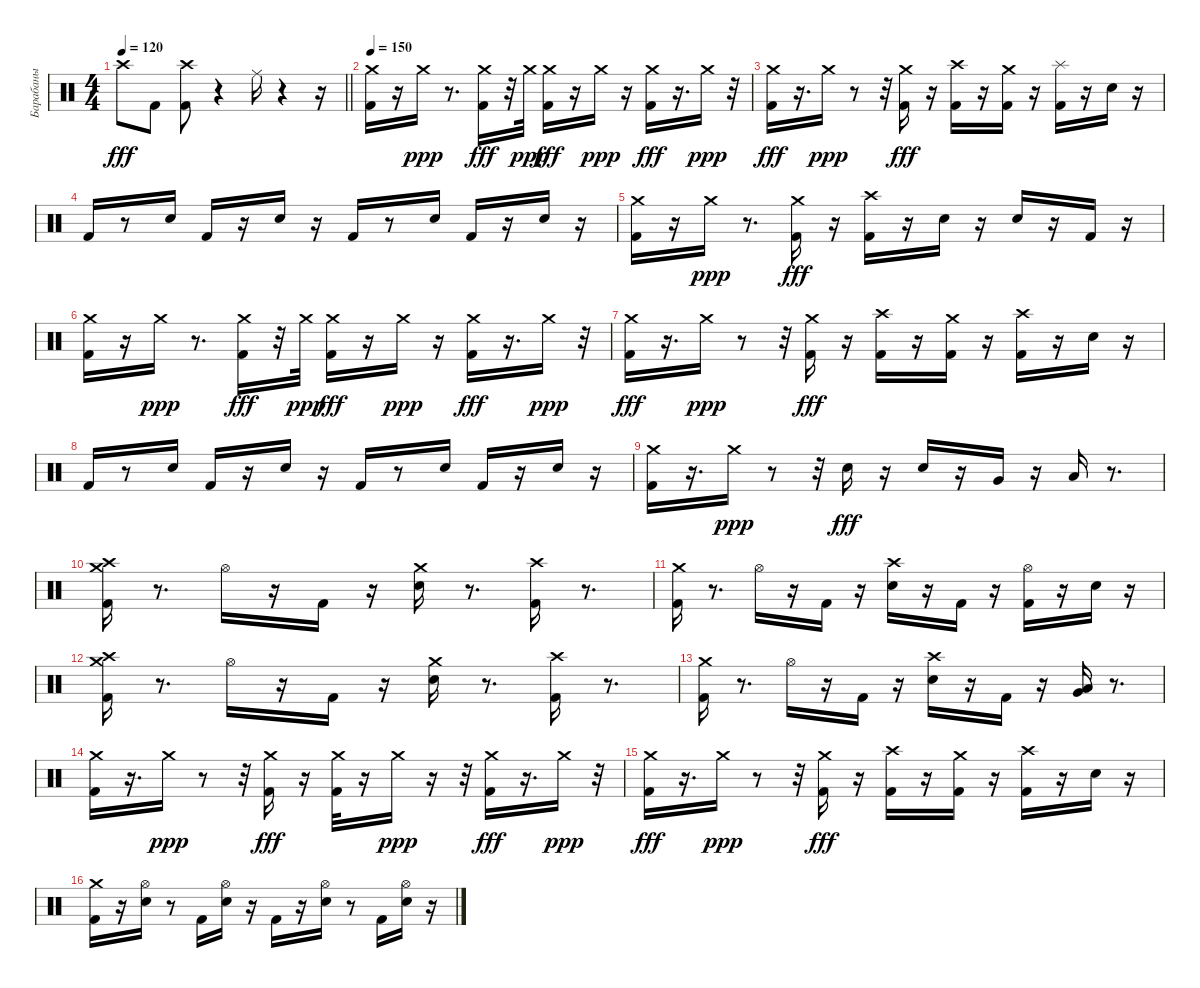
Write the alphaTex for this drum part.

\track ("Барабаны" "Барабаны") {instrument percussion}
\staff {score}
\articulation defaults
\ts (4 4)
\tempo 120
\clef neutral
\barLineRight lightlight
\ks c "Crash high (hit)".8{dy fff} "Kick (hit) 2".8
("Kick (hit) 2" "Crash high (hit)").8 r.4 "Ride (middle)".16 r.4 r.16 |
\section ("" " ")
\tempo 150
("Kick (hit) 2" "Crash medium (hit)").16 r.16 "Crash medium (hit)".16{dy ppp} r.8{d} ("Kick (hit) 2" "Crash medium (hit)").16{dy fff} r.32 "Crash medium (hit)".32{dy ppp} ("Kick (hit) 2" "Crash medium (hit)").16{dy fff} r.16 "Crash medium (hit)".16{dy ppp} r.16 ("Kick (hit) 2" "Crash medium (hit)").16{dy fff} r.16{d} "Crash medium (hit)".16{dy ppp} r.32 |
("Kick (hit) 2" "Crash medium (hit)").16{dy fff} r.16{d} "Crash medium (hit)".16{dy ppp} r.8 r.32 ("Kick (hit) 2" "Crash medium (hit)").16{dy fff} r.16 ("Kick (hit) 2" "Crash high (hit)").16 r.16 ("Kick (hit) 2" "Crash medium (hit)").16 r.16 ("Kick (hit) 2" "Splash (hit)").16 r.16 "Snare (hit) 2".16 r.16 |
"Kick (hit) 2".16 r.8 "Snare (hit) 2".16 "Kick (hit) 2".16 r.16 "Snare (hit) 2".16 r.16 "Kick (hit) 2".16 r.8 "Snare (hit) 2".16 "Kick (hit) 2".16 r.16 "Snare (hit) 2".16 r.16 |
("Kick (hit) 2" "Crash medium (hit)").16 r.16 "Crash medium (hit)".16{dy ppp} r.8{d} ("Kick (hit) 2" "Crash medium (hit)").16{dy fff} r.16 ("Kick (hit) 2" "Crash high (hit)").16 r.16 "Snare (hit) 2".16 r.16 "Snare (hit) 2".16 r.16 "Kick (hit) 2".16 r.16 |
("Kick (hit) 2" "Crash medium (hit)").16 r.16 "Crash medium (hit)".16{dy ppp} r.8{d} ("Kick (hit) 2" "Crash medium (hit)").16{dy fff} r.32 "Crash medium (hit)".32{dy ppp} ("Kick (hit) 2" "Crash medium (hit)").16{dy fff} r.16 "Crash medium (hit)".16{dy ppp} r.16 ("Kick (hit) 2" "Crash medium (hit)").16{dy fff} r.16{d} "Crash medium (hit)".16{dy ppp} r.32 |
("Kick (hit) 2" "Crash medium (hit)").16{dy fff} r.16{d} "Crash medium (hit)".16{dy ppp} r.8 r.32 ("Kick (hit) 2" "Crash medium (hit)").16{dy fff} r.16 ("Kick (hit) 2" "Crash high (hit)").16 r.16 ("Kick (hit) 2" "Crash medium (hit)").16 r.16 ("Kick (hit) 2" "Crash high (hit)").16 r.16 "Snare (hit) 2".16 r.16 |
"Kick (hit) 2".16 r.8 "Snare (hit) 2".16 "Kick (hit) 2".16 r.16 "Snare (hit) 2".16 r.16 "Kick (hit) 2".16 r.8 "Snare (hit) 2".16 "Kick (hit) 2".16 r.16 "Snare (hit) 2".16 r.16 |
("Kick (hit) 2" "Crash medium (hit)").16 r.16{d} "Crash medium (hit)".16{dy ppp} r.8 r.32 "Snare (hit) 2".16{dy fff} r.16 "Snare (hit) 2".16 r.16 "Very Low Tom (hit)".16 r.16 "Low Floor Tom (hit)".16 r.8{d} |
("Kick (hit) 2" "Crash high (hit)" "Crash medium (hit)").16 r.8{d} "Hi-Hat (open)".16 r.16 "Kick (hit) 2".16 r.16 ("Snare (hit) 2" "Crash medium (hit)").16 r.8{d} ("Kick (hit) 2" "Crash high (hit)").16 r.8{d} |
("Kick (hit) 2" "Crash medium (hit)").16 r.8{d} "Hi-Hat (open)".16 r.16 "Kick (hit) 2".16 r.16 ("Snare (hit) 2" "Crash high (hit)").16 r.16 "Kick (hit) 2".16 r.16 ("Kick (hit) 2" "Hi-Hat (open)").16 r.16 "Snare (hit) 2".16 r.16 |
("Kick (hit) 2" "Crash high (hit)" "Crash medium (hit)").16 r.8{d} "Hi-Hat (open)".16 r.16 "Kick (hit) 2".16 r.16 ("Snare (hit) 2" "Crash medium (hit)").16 r.8{d} ("Kick (hit) 2" "Crash high (hit)").16 r.8{d} |
("Kick (hit) 2" "Crash medium (hit)").16 r.8{d} "Hi-Hat (open)".16 r.16 "Kick (hit) 2".16 r.16 ("Snare (hit) 2" "Crash high (hit)").16 r.16 "Kick (hit) 2".16 r.16 ("Low Floor Tom (hit)" "Very Low Tom (hit)").16 r.8{d} |
("Kick (hit) 2" "Crash medium (hit)").16 r.16{d} "Crash medium (hit)".16{dy ppp} r.8 r.32 ("Kick (hit) 2" "Crash medium (hit)").16{dy fff} r.16 ("Kick (hit) 2" "Crash medium (hit)").32 r.16 "Crash medium (hit)".16{dy ppp} r.16 r.32 ("Kick (hit) 2" "Crash medium (hit)").16{dy fff} r.16{d} "Crash medium (hit)".16{dy ppp} r.32 |
("Kick (hit) 2" "Crash medium (hit)").16{dy fff} r.16{d} "Crash medium (hit)".16{dy ppp} r.8 r.32 ("Kick (hit) 2" "Crash medium (hit)").16{dy fff} r.16 ("Kick (hit) 2" "Crash high (hit)").16 r.16 ("Kick (hit) 2" "Crash medium (hit)").16 r.16 ("Kick (hit) 2" "Crash high (hit)").16 r.16 "Snare (hit) 2".16 r.16 |
("Kick (hit) 2" "Crash medium (hit)").16 r.16 ("Snare (hit) 2" "Hi-Hat (open)").16 r.8 "Kick (hit) 2".16 ("Snare (hit) 2" "Hi-Hat (open)").16 r.16 "Kick (hit) 2".16 r.16 ("Snare (hit) 2" "Hi-Hat (open)").16 r.8 "Kick (hit) 2".16 ("Snare (hit) 2" "Hi-Hat (open)").16 r.16
